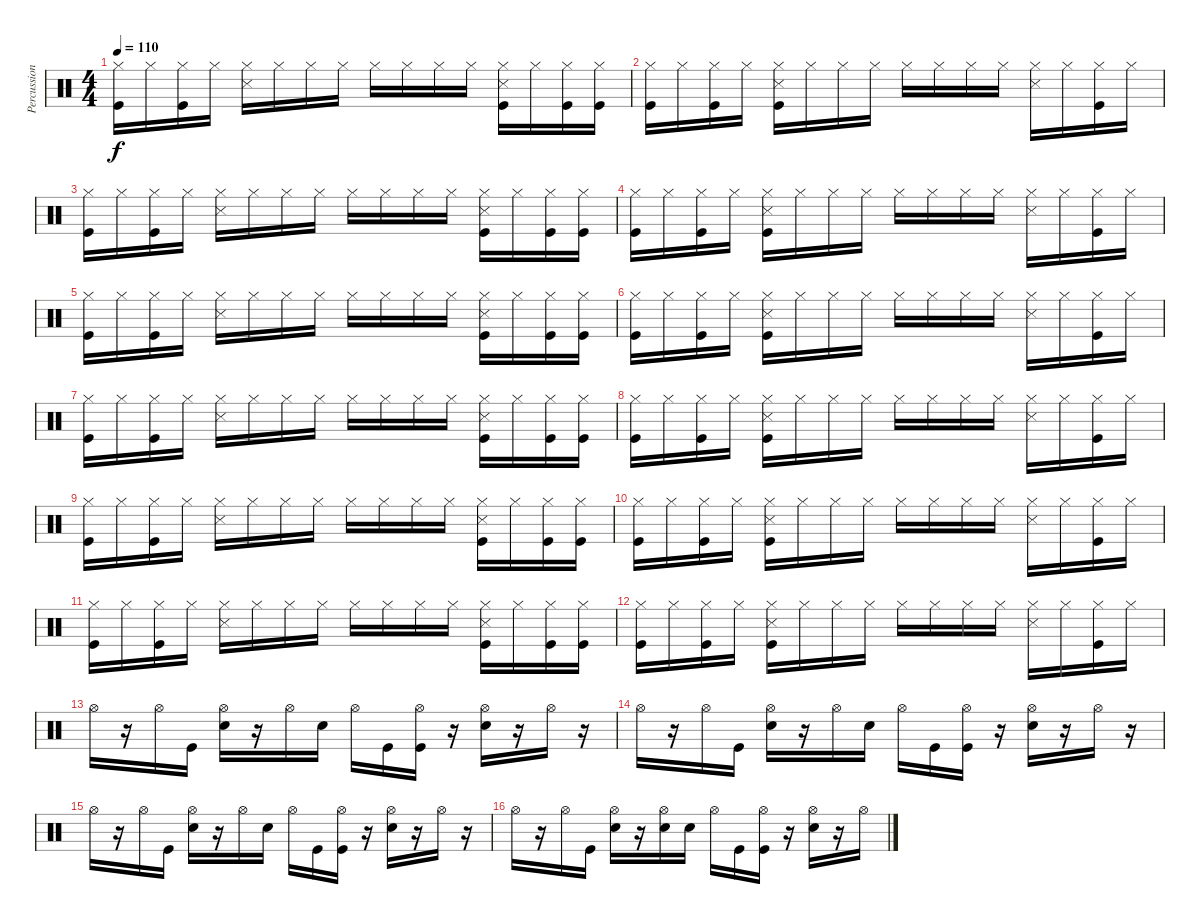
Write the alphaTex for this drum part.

\track ("Percussion" "Percussion") {instrument percussion}
\staff {score}
\articulation defaults
\ts (4 4)
\tempo 110
\clef neutral
\ks c
("Hi-Hat (closed)" "Kick (hit)").16{dy f} "Hi-Hat (closed)".16 ("Hi-Hat (closed)" "Kick (hit)").16 "Hi-Hat (closed)".16 ("Hi-Hat (closed)" "Snare (side stick) 3").16 "Hi-Hat (closed)".16 "Hi-Hat (closed)".16 "Hi-Hat (closed)".16 "Hi-Hat (closed)".16 "Hi-Hat (closed)".16 "Hi-Hat (closed)".16 "Hi-Hat (closed)".16 ("Hi-Hat (closed)" "Snare (side stick) 3" "Kick (hit)").16 "Hi-Hat (closed)".16 ("Hi-Hat (closed)" "Kick (hit)").16 ("Hi-Hat (closed)" "Kick (hit)").16 |
("Hi-Hat (closed)" "Kick (hit)").16 "Hi-Hat (closed)".16 ("Hi-Hat (closed)" "Kick (hit)").16 "Hi-Hat (closed)".16 ("Hi-Hat (closed)" "Snare (side stick) 3" "Kick (hit)").16 "Hi-Hat (closed)".16 "Hi-Hat (closed)".16 "Hi-Hat (closed)".16 "Hi-Hat (closed)".16 "Hi-Hat (closed)".16 "Hi-Hat (closed)".16 "Hi-Hat (closed)".16 ("Hi-Hat (closed)" "Snare (side stick) 3").16 "Hi-Hat (closed)".16 ("Hi-Hat (closed)" "Kick (hit)").16 "Hi-Hat (closed)".16 |
("Hi-Hat (closed)" "Kick (hit)").16 "Hi-Hat (closed)".16 ("Hi-Hat (closed)" "Kick (hit)").16 "Hi-Hat (closed)".16 ("Hi-Hat (closed)" "Snare (side stick) 3").16 "Hi-Hat (closed)".16 "Hi-Hat (closed)".16 "Hi-Hat (closed)".16 "Hi-Hat (closed)".16 "Hi-Hat (closed)".16 "Hi-Hat (closed)".16 "Hi-Hat (closed)".16 ("Hi-Hat (closed)" "Snare (side stick) 3" "Kick (hit)").16 "Hi-Hat (closed)".16 ("Hi-Hat (closed)" "Kick (hit)").16 ("Hi-Hat (closed)" "Kick (hit)").16 |
("Hi-Hat (closed)" "Kick (hit)").16 "Hi-Hat (closed)".16 ("Hi-Hat (closed)" "Kick (hit)").16 "Hi-Hat (closed)".16 ("Hi-Hat (closed)" "Snare (side stick) 3" "Kick (hit)").16 "Hi-Hat (closed)".16 "Hi-Hat (closed)".16 "Hi-Hat (closed)".16 "Hi-Hat (closed)".16 "Hi-Hat (closed)".16 "Hi-Hat (closed)".16 "Hi-Hat (closed)".16 ("Hi-Hat (closed)" "Snare (side stick) 3").16 "Hi-Hat (closed)".16 ("Hi-Hat (closed)" "Kick (hit)").16 "Hi-Hat (closed)".16 |
("Hi-Hat (closed)" "Kick (hit)").16 "Hi-Hat (closed)".16 ("Hi-Hat (closed)" "Kick (hit)").16 "Hi-Hat (closed)".16 ("Hi-Hat (closed)" "Snare (side stick) 3").16 "Hi-Hat (closed)".16 "Hi-Hat (closed)".16 "Hi-Hat (closed)".16 "Hi-Hat (closed)".16 "Hi-Hat (closed)".16 "Hi-Hat (closed)".16 "Hi-Hat (closed)".16 ("Hi-Hat (closed)" "Snare (side stick) 3" "Kick (hit)").16 "Hi-Hat (closed)".16 ("Hi-Hat (closed)" "Kick (hit)").16 ("Hi-Hat (closed)" "Kick (hit)").16 |
("Hi-Hat (closed)" "Kick (hit)").16 "Hi-Hat (closed)".16 ("Hi-Hat (closed)" "Kick (hit)").16 "Hi-Hat (closed)".16 ("Hi-Hat (closed)" "Snare (side stick) 3" "Kick (hit)").16 "Hi-Hat (closed)".16 "Hi-Hat (closed)".16 "Hi-Hat (closed)".16 "Hi-Hat (closed)".16 "Hi-Hat (closed)".16 "Hi-Hat (closed)".16 "Hi-Hat (closed)".16 ("Hi-Hat (closed)" "Snare (side stick) 3").16 "Hi-Hat (closed)".16 ("Hi-Hat (closed)" "Kick (hit)").16 "Hi-Hat (closed)".16 |
("Hi-Hat (closed)" "Kick (hit)").16 "Hi-Hat (closed)".16 ("Hi-Hat (closed)" "Kick (hit)").16 "Hi-Hat (closed)".16 ("Hi-Hat (closed)" "Snare (side stick) 3").16 "Hi-Hat (closed)".16 "Hi-Hat (closed)".16 "Hi-Hat (closed)".16 "Hi-Hat (closed)".16 "Hi-Hat (closed)".16 "Hi-Hat (closed)".16 "Hi-Hat (closed)".16 ("Hi-Hat (closed)" "Snare (side stick) 3" "Kick (hit)").16 "Hi-Hat (closed)".16 ("Hi-Hat (closed)" "Kick (hit)").16 ("Hi-Hat (closed)" "Kick (hit)").16 |
("Hi-Hat (closed)" "Kick (hit)").16 "Hi-Hat (closed)".16 ("Hi-Hat (closed)" "Kick (hit)").16 "Hi-Hat (closed)".16 ("Hi-Hat (closed)" "Snare (side stick) 3" "Kick (hit)").16 "Hi-Hat (closed)".16 "Hi-Hat (closed)".16 "Hi-Hat (closed)".16 "Hi-Hat (closed)".16 "Hi-Hat (closed)".16 "Hi-Hat (closed)".16 "Hi-Hat (closed)".16 ("Hi-Hat (closed)" "Snare (side stick) 3").16 "Hi-Hat (closed)".16 ("Hi-Hat (closed)" "Kick (hit)").16 "Hi-Hat (closed)".16 |
("Hi-Hat (closed)" "Kick (hit)").16 "Hi-Hat (closed)".16 ("Hi-Hat (closed)" "Kick (hit)").16 "Hi-Hat (closed)".16 ("Hi-Hat (closed)" "Snare (side stick) 3").16 "Hi-Hat (closed)".16 "Hi-Hat (closed)".16 "Hi-Hat (closed)".16 "Hi-Hat (closed)".16 "Hi-Hat (closed)".16 "Hi-Hat (closed)".16 "Hi-Hat (closed)".16 ("Hi-Hat (closed)" "Snare (side stick) 3" "Kick (hit)").16 "Hi-Hat (closed)".16 ("Hi-Hat (closed)" "Kick (hit)").16 ("Hi-Hat (closed)" "Kick (hit)").16 |
("Hi-Hat (closed)" "Kick (hit)").16 "Hi-Hat (closed)".16 ("Hi-Hat (closed)" "Kick (hit)").16 "Hi-Hat (closed)".16 ("Hi-Hat (closed)" "Snare (side stick) 3" "Kick (hit)").16 "Hi-Hat (closed)".16 "Hi-Hat (closed)".16 "Hi-Hat (closed)".16 "Hi-Hat (closed)".16 "Hi-Hat (closed)".16 "Hi-Hat (closed)".16 "Hi-Hat (closed)".16 ("Hi-Hat (closed)" "Snare (side stick) 3").16 "Hi-Hat (closed)".16 ("Hi-Hat (closed)" "Kick (hit)").16 "Hi-Hat (closed)".16 |
("Hi-Hat (closed)" "Kick (hit)").16 "Hi-Hat (closed)".16 ("Hi-Hat (closed)" "Kick (hit)").16 "Hi-Hat (closed)".16 ("Hi-Hat (closed)" "Snare (side stick) 3").16 "Hi-Hat (closed)".16 "Hi-Hat (closed)".16 "Hi-Hat (closed)".16 "Hi-Hat (closed)".16 "Hi-Hat (closed)".16 "Hi-Hat (closed)".16 "Hi-Hat (closed)".16 ("Hi-Hat (closed)" "Snare (side stick) 3" "Kick (hit)").16 "Hi-Hat (closed)".16 ("Hi-Hat (closed)" "Kick (hit)").16 ("Hi-Hat (closed)" "Kick (hit)").16 |
("Hi-Hat (closed)" "Kick (hit)").16 "Hi-Hat (closed)".16 ("Hi-Hat (closed)" "Kick (hit)").16 "Hi-Hat (closed)".16 ("Hi-Hat (closed)" "Snare (side stick) 3" "Kick (hit)").16 "Hi-Hat (closed)".16 "Hi-Hat (closed)".16 "Hi-Hat (closed)".16 "Hi-Hat (closed)".16 "Hi-Hat (closed)".16 "Hi-Hat (closed)".16 "Hi-Hat (closed)".16 ("Hi-Hat (closed)" "Snare (side stick) 3").16 "Hi-Hat (closed)".16 ("Hi-Hat (closed)" "Kick (hit)").16 "Hi-Hat (closed)".16 |
"Hi-Hat (open)".16 r.16 "Hi-Hat (open)".16 "Kick (hit)".16 ("Hi-Hat (open)" "Snare (hit) 2").16 r.16 "Hi-Hat (open)".16 "Snare (hit) 2".16 "Hi-Hat (open)".16 "Kick (hit)".16 ("Hi-Hat (open)" "Kick (hit)").16 r.16 ("Hi-Hat (open)" "Snare (hit) 2").16 r.16 "Hi-Hat (open)".16 r.16 |
"Hi-Hat (open)".16 r.16 "Hi-Hat (open)".16 "Kick (hit)".16 ("Hi-Hat (open)" "Snare (hit) 2").16 r.16 "Hi-Hat (open)".16 "Snare (hit) 2".16 "Hi-Hat (open)".16 "Kick (hit)".16 ("Hi-Hat (open)" "Kick (hit)").16 r.16 ("Hi-Hat (open)" "Snare (hit) 2").16 r.16 "Hi-Hat (open)".16 r.16 |
"Hi-Hat (open)".16 r.16 "Hi-Hat (open)".16 "Kick (hit)".16 ("Hi-Hat (open)" "Snare (hit) 2").16 r.16 "Hi-Hat (open)".16 "Snare (hit) 2".16 "Hi-Hat (open)".16 "Kick (hit)".16 ("Hi-Hat (open)" "Kick (hit)").16 r.16 ("Hi-Hat (open)" "Snare (hit) 2").16 r.16 "Hi-Hat (open)".16 r.16 |
"Hi-Hat (open)".16 r.16 "Hi-Hat (open)".16 "Kick (hit)".16 ("Hi-Hat (open)" "Snare (hit) 2").16 r.16 ("Hi-Hat (open)" "Snare (hit) 2").16 "Snare (hit) 2".16 "Hi-Hat (open)".16 "Kick (hit)".16 ("Hi-Hat (open)" "Kick (hit)").16 r.16 ("Hi-Hat (open)" "Snare (hit) 2").16 r.16 "Hi-Hat (open)".16
